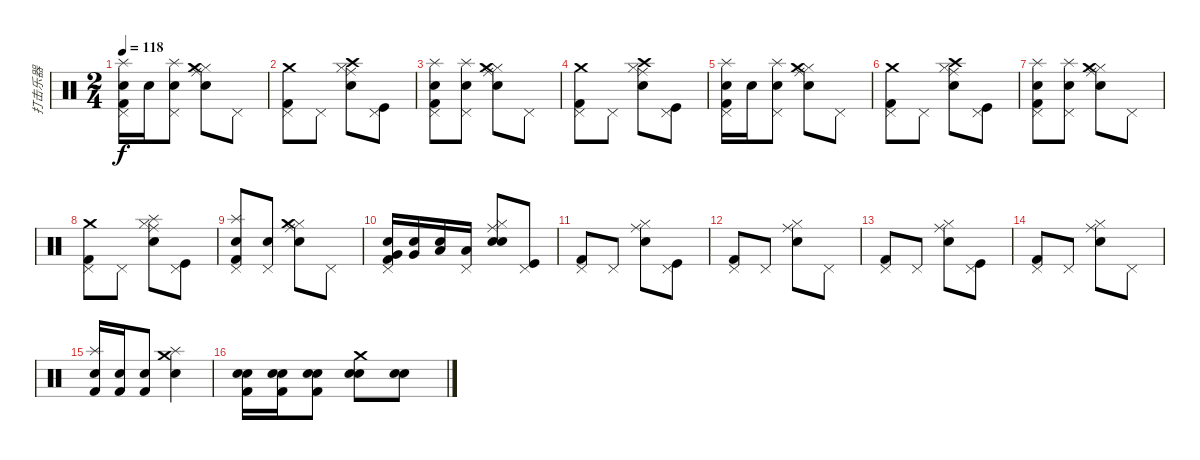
\track ("打击乐器" "打击乐器") {instrument percussion}
\staff {score}
\articulation defaults
\ts (2 4)
\tempo 118
\clef neutral
\ks c
("Snare (hit) 2" "Pedal Hi-Hat (hit)" "Splash (hit)" "Kick (hit) 2").16{dy f} "Snare (hit) 2".16 ("Snare (hit) 2" "Pedal Hi-Hat (hit)" "Splash (hit)").8 ("Ride (middle)" "Hi-Hat (closed)" "Crash medium (hit)" "Snare (hit) 2").8 "Pedal Hi-Hat (hit)".8 |
("Pedal Hi-Hat (hit)" "Crash medium (hit)" "Kick (hit) 2").8 "Pedal Hi-Hat (hit)".8 ("Ride (middle)" "Hi-Hat (closed)" "Crash high (hit)" "Snare (hit) 2").8 ("Pedal Hi-Hat (hit)" "Kick (hit)").8 |
("Snare (hit) 2" "Pedal Hi-Hat (hit)" "Splash (hit)" "Kick (hit) 2").8 ("Snare (hit) 2" "Pedal Hi-Hat (hit)" "Splash (hit)").8 ("Ride (middle)" "Hi-Hat (closed)" "Crash medium (hit)" "Snare (hit) 2").8 "Pedal Hi-Hat (hit)".8 |
("Pedal Hi-Hat (hit)" "Crash medium (hit)" "Kick (hit) 2").8 "Pedal Hi-Hat (hit)".8 ("Ride (middle)" "Hi-Hat (closed)" "Crash high (hit)" "Snare (hit) 2").8 ("Pedal Hi-Hat (hit)" "Kick (hit)").8 |
("Snare (hit) 2" "Pedal Hi-Hat (hit)" "Splash (hit)" "Kick (hit) 2").16 "Snare (hit) 2".16 ("Snare (hit) 2" "Pedal Hi-Hat (hit)" "Splash (hit)").8 ("Ride (middle)" "Hi-Hat (closed)" "Crash medium (hit)" "Snare (hit) 2").8 "Pedal Hi-Hat (hit)".8 |
("Pedal Hi-Hat (hit)" "Crash medium (hit)" "Kick (hit) 2").8 "Pedal Hi-Hat (hit)".8 ("Ride (middle)" "Hi-Hat (closed)" "Crash high (hit)" "Snare (hit) 2").8 ("Pedal Hi-Hat (hit)" "Kick (hit)").8 |
("Snare (hit) 2" "Pedal Hi-Hat (hit)" "Splash (hit)" "Kick (hit) 2").8 ("Snare (hit) 2" "Pedal Hi-Hat (hit)" "Splash (hit)").8 ("Ride (middle)" "Hi-Hat (closed)" "Crash medium (hit)" "Snare (hit) 2").8 "Pedal Hi-Hat (hit)".8 |
("Pedal Hi-Hat (hit)" "Crash medium (hit)" "Kick (hit) 2").8 "Pedal Hi-Hat (hit)".8 ("Ride (middle)" "Hi-Hat (closed)" "Splash (hit)" "Snare (hit) 2").8 ("Pedal Hi-Hat (hit)" "Kick (hit)").8 |
("Snare (hit) 2" "Pedal Hi-Hat (hit)" "Splash (hit)" "Kick (hit) 2").8 ("Snare (hit) 2" "Pedal Hi-Hat (hit)").8 ("Ride (middle)" "Hi-Hat (closed)" "Crash medium (hit)" "Snare (hit) 2").8 "Pedal Hi-Hat (hit)".8 |
("Very Low Tom (hit)" "Pedal Hi-Hat (hit)" "Electric Snare (hit)" "Kick (hit) 2").16 ("Very Low Tom (hit)" "Electric Snare (hit)").16 ("Low Floor Tom (hit)" "Electric Snare (hit)").16 ("Low Floor Tom (hit)" "Pedal Hi-Hat (hit)").16 ("Ride (middle)" "Hi-Hat (closed)" "Electric Snare (hit)" "Snare (hit) 2").8 ("Pedal Hi-Hat (hit)" "Kick (hit)").8 |
("Pedal Hi-Hat (hit)" "Kick (hit) 2").8 "Pedal Hi-Hat (hit)".8 ("Ride (middle)" "Hi-Hat (closed)" "Snare (hit) 2").8 ("Pedal Hi-Hat (hit)" "Kick (hit)").8 |
("Pedal Hi-Hat (hit)" "Kick (hit) 2").8 "Pedal Hi-Hat (hit)".8 ("Ride (middle)" "Hi-Hat (closed)" "Snare (hit) 2").8 "Pedal Hi-Hat (hit)".8 |
("Pedal Hi-Hat (hit)" "Kick (hit) 2").8 "Pedal Hi-Hat (hit)".8 ("Ride (middle)" "Hi-Hat (closed)" "Snare (hit) 2").8 ("Pedal Hi-Hat (hit)" "Kick (hit)").8 |
("Pedal Hi-Hat (hit)" "Kick (hit) 2").8 "Pedal Hi-Hat (hit)".8 ("Ride (middle)" "Hi-Hat (closed)" "Snare (hit) 2").8 "Pedal Hi-Hat (hit)".8 |
("Splash (hit)" "Snare (hit) 2" "Kick (hit) 2").16 ("Snare (hit) 2" "Kick (hit) 2").16 ("Snare (hit) 2" "Kick (hit) 2").8 ("Crash medium (hit)" "Snare (hit) 2" "Splash (hit)").4 |
("Electric Snare (hit)" "Snare (hit) 2" "Kick (hit) 2").16 ("Electric Snare (hit)" "Snare (hit) 2" "Kick (hit) 2").16 ("Electric Snare (hit)" "Snare (hit) 2" "Kick (hit) 2").8 ("Crash medium (hit)" "Electric Snare (hit)" "Snare (hit) 2").8 ("Electric Snare (hit)" "Snare (hit) 2").8
